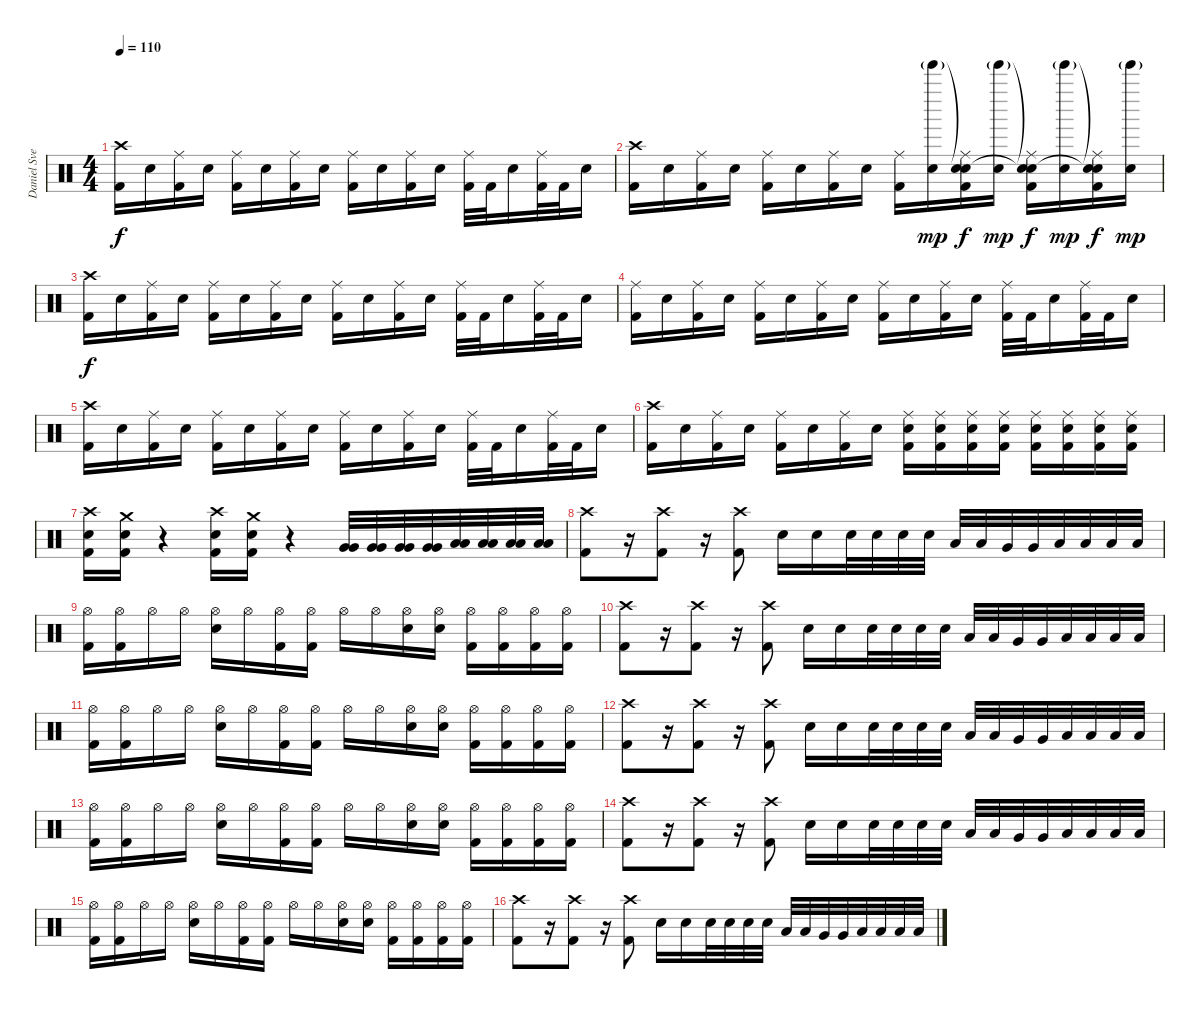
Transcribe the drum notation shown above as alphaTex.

\track ("Daniel Svensson" "Daniel Sve") {instrument percussion}
\staff {score}
\articulation defaults
\ts (4 4)
\tempo 110
\clef neutral
\ks c
("Crash high (hit)" "Kick (hit) 2").16{dy f} "Snare (hit) 2".16 ("Ride (middle)" "Kick (hit) 2").16 "Snare (hit) 2".16 ("Ride (middle)" "Kick (hit) 2").16 "Snare (hit) 2".16 ("Ride (middle)" "Kick (hit) 2").16 "Snare (hit) 2".16 ("Ride (middle)" "Kick (hit) 2").16 "Snare (hit) 2".16 ("Ride (middle)" "Kick (hit) 2").16 "Snare (hit) 2".16 ("Ride (middle)" "Kick (hit) 2").32 "Kick (hit) 2".32 "Snare (hit) 2".16 ("Ride (middle)" "Kick (hit) 2").32 "Kick (hit) 2".32 "Snare (hit) 2".16 |
("Crash high (hit)" "Kick (hit) 2").16 "Snare (hit) 2".16 ("Ride (middle)" "Kick (hit) 2").16 "Snare (hit) 2".16 ("Ride (middle)" "Kick (hit) 2").16 "Snare (hit) 2".16 ("Ride (middle)" "Kick (hit) 2").16 "Snare (hit) 2".16 ("Ride (middle)" "Kick (hit) 2").16 ("Tinkle Bell (hit)"{g} "Snare (hit) 2").16{dy mp} ("Snare (hit)"{t} "Ride (middle)" "Snare (hit)" "Kick (hit) 2").16{dy f} ("Tinkle Bell (hit)"{g} "Snare (hit) 2").16{dy mp} ("Snare (hit)"{t} "Ride (middle)" "Snare (hit)"{t} "Kick (hit) 2").16{dy f} ("Tinkle Bell (hit)"{g} "Snare (hit) 2").16{dy mp} ("Snare (hit)"{t} "Ride (middle)" "Snare (hit)"{t} "Kick (hit) 2").16{dy f} ("Tinkle Bell (hit)"{g} "Snare (hit) 2").16{dy mp} |
("Crash high (hit)" "Kick (hit) 2").16{dy f} "Snare (hit) 2".16 ("Ride (middle)" "Kick (hit) 2").16 "Snare (hit) 2".16 ("Ride (middle)" "Kick (hit) 2").16 "Snare (hit) 2".16 ("Ride (middle)" "Kick (hit) 2").16 "Snare (hit) 2".16 ("Ride (middle)" "Kick (hit) 2").16 "Snare (hit) 2".16 ("Ride (middle)" "Kick (hit) 2").16 "Snare (hit) 2".16 ("Ride (middle)" "Kick (hit) 2").32 "Kick (hit) 2".32 "Snare (hit) 2".16 ("Ride (middle)" "Kick (hit) 2").32 "Kick (hit) 2".32 "Snare (hit) 2".16 |
("Ride (middle)" "Kick (hit) 2").16 "Snare (hit) 2".16 ("Ride (middle)" "Kick (hit) 2").16 "Snare (hit) 2".16 ("Ride (middle)" "Kick (hit) 2").16 "Snare (hit) 2".16 ("Ride (middle)" "Kick (hit) 2").16 "Snare (hit) 2".16 ("Ride (middle)" "Kick (hit) 2").16 "Snare (hit) 2".16 ("Ride (middle)" "Kick (hit) 2").16 "Snare (hit) 2".16 ("Ride (middle)" "Kick (hit) 2").32 "Kick (hit) 2".32 "Snare (hit) 2".16 ("Ride (middle)" "Kick (hit) 2").32 "Kick (hit) 2".32 "Snare (hit) 2".16 |
("Crash high (hit)" "Kick (hit) 2").16 "Snare (hit) 2".16 ("Ride (middle)" "Kick (hit) 2").16 "Snare (hit) 2".16 ("Ride (middle)" "Kick (hit) 2").16 "Snare (hit) 2".16 ("Ride (middle)" "Kick (hit) 2").16 "Snare (hit) 2".16 ("Ride (middle)" "Kick (hit) 2").16 "Snare (hit) 2".16 ("Ride (middle)" "Kick (hit) 2").16 "Snare (hit) 2".16 ("Ride (middle)" "Kick (hit) 2").32 "Kick (hit) 2".32 "Snare (hit) 2".16 ("Ride (middle)" "Kick (hit) 2").32 "Kick (hit) 2".32 "Snare (hit) 2".16 |
("Crash high (hit)" "Kick (hit) 2").16 "Snare (hit) 2".16 ("Ride (middle)" "Kick (hit) 2").16 "Snare (hit) 2".16 ("Ride (middle)" "Kick (hit) 2").16 "Snare (hit) 2".16 ("Ride (middle)" "Kick (hit) 2").16 "Snare (hit) 2".16 ("Ride (middle)" "Snare (hit) 2" "Kick (hit) 2").16 ("Ride (middle)" "Snare (hit) 2" "Kick (hit) 2").16 ("Ride (middle)" "Snare (hit) 2" "Kick (hit) 2").16 ("Ride (middle)" "Snare (hit) 2" "Kick (hit) 2").16 ("Ride (middle)" "Snare (hit) 2" "Kick (hit) 2").16 ("Ride (middle)" "Snare (hit) 2" "Kick (hit) 2").16 ("Ride (middle)" "Snare (hit) 2" "Kick (hit) 2").16 ("Ride (middle)" "Snare (hit) 2" "Kick (hit) 2").16 |
("Crash high (hit)" "Snare (hit) 2" "Kick (hit) 2").16 ("Crash medium (hit)" "Snare (hit) 2" "Kick (hit) 2").16 r.4 ("Crash high (hit)" "Snare (hit) 2" "Kick (hit) 2").16 ("Crash medium (hit)" "Snare (hit) 2" "Kick (hit) 2").16 r.4 ("Very Low Tom (hit)" "Very Low Tom (hit)").32 ("Very Low Tom (hit)" "Very Low Tom (hit)").32 ("Very Low Tom (hit)" "Very Low Tom (hit)").32 ("Very Low Tom (hit)" "Very Low Tom (hit)").32 ("Low Tom (hit)" "Low Tom (hit)").32 ("Low Tom (hit)" "Low Tom (hit)").32 ("Low Floor Tom (hit)" "Low Floor Tom (hit)").32 ("Low Floor Tom (hit)" "Low Floor Tom (hit)").32 |
("Crash high (hit)" "Kick (hit) 2").8 r.16 ("Crash high (hit)" "Kick (hit) 2").8 r.16 ("Crash high (hit)" "Kick (hit) 2").8 "Snare (hit) 2".16 "Snare (hit) 2".16 "Snare (hit) 2".32 "Snare (hit) 2".32 "Snare (hit) 2".32 "Snare (hit) 2".32 "Low Tom (hit)".32 "Low Tom (hit)".32 "Very Low Tom (hit)".32 "Very Low Tom (hit)".32 "Low Floor Tom (hit)".32 "Low Floor Tom (hit)".32 "Low Floor Tom (hit)".32 "Low Floor Tom (hit)".32 |
("Hi-Hat (open)" "Kick (hit) 2").16 ("Hi-Hat (open)" "Kick (hit) 2").16 "Hi-Hat (open)".16 "Hi-Hat (open)".16 ("Hi-Hat (open)" "Snare (hit) 2").16 "Hi-Hat (open)".16 ("Hi-Hat (open)" "Kick (hit) 2").16 ("Hi-Hat (open)" "Kick (hit) 2").16 "Hi-Hat (open)".16 "Hi-Hat (open)".16 ("Hi-Hat (open)" "Snare (hit) 2").16 ("Hi-Hat (open)" "Snare (hit) 2").16 ("Hi-Hat (open)" "Kick (hit) 2").16 ("Hi-Hat (open)" "Kick (hit) 2").16 ("Hi-Hat (open)" "Kick (hit) 2").16 ("Hi-Hat (open)" "Kick (hit) 2").16 |
("Crash high (hit)" "Kick (hit) 2").8 r.16 ("Crash high (hit)" "Kick (hit) 2").8 r.16 ("Crash high (hit)" "Kick (hit) 2").8 "Snare (hit) 2".16 "Snare (hit) 2".16 "Snare (hit) 2".32 "Snare (hit) 2".32 "Snare (hit) 2".32 "Snare (hit) 2".32 "Low Tom (hit)".32 "Low Tom (hit)".32 "Very Low Tom (hit)".32 "Very Low Tom (hit)".32 "Low Floor Tom (hit)".32 "Low Floor Tom (hit)".32 "Low Floor Tom (hit)".32 "Low Floor Tom (hit)".32 |
("Hi-Hat (open)" "Kick (hit) 2").16 ("Hi-Hat (open)" "Kick (hit) 2").16 "Hi-Hat (open)".16 "Hi-Hat (open)".16 ("Hi-Hat (open)" "Snare (hit) 2").16 "Hi-Hat (open)".16 ("Hi-Hat (open)" "Kick (hit) 2").16 ("Hi-Hat (open)" "Kick (hit) 2").16 "Hi-Hat (open)".16 "Hi-Hat (open)".16 ("Hi-Hat (open)" "Snare (hit) 2").16 ("Hi-Hat (open)" "Snare (hit) 2").16 ("Hi-Hat (open)" "Kick (hit) 2").16 ("Hi-Hat (open)" "Kick (hit) 2").16 ("Hi-Hat (open)" "Kick (hit) 2").16 ("Hi-Hat (open)" "Kick (hit) 2").16 |
("Crash high (hit)" "Kick (hit) 2").8 r.16 ("Crash high (hit)" "Kick (hit) 2").8 r.16 ("Crash high (hit)" "Kick (hit) 2").8 "Snare (hit) 2".16 "Snare (hit) 2".16 "Snare (hit) 2".32 "Snare (hit) 2".32 "Snare (hit) 2".32 "Snare (hit) 2".32 "Low Tom (hit)".32 "Low Tom (hit)".32 "Very Low Tom (hit)".32 "Very Low Tom (hit)".32 "Low Floor Tom (hit)".32 "Low Floor Tom (hit)".32 "Low Floor Tom (hit)".32 "Low Floor Tom (hit)".32 |
("Hi-Hat (open)" "Kick (hit) 2").16 ("Hi-Hat (open)" "Kick (hit) 2").16 "Hi-Hat (open)".16 "Hi-Hat (open)".16 ("Hi-Hat (open)" "Snare (hit) 2").16 "Hi-Hat (open)".16 ("Hi-Hat (open)" "Kick (hit) 2").16 ("Hi-Hat (open)" "Kick (hit) 2").16 "Hi-Hat (open)".16 "Hi-Hat (open)".16 ("Hi-Hat (open)" "Snare (hit) 2").16 ("Hi-Hat (open)" "Snare (hit) 2").16 ("Hi-Hat (open)" "Kick (hit) 2").16 ("Hi-Hat (open)" "Kick (hit) 2").16 ("Hi-Hat (open)" "Kick (hit) 2").16 ("Hi-Hat (open)" "Kick (hit) 2").16 |
("Crash high (hit)" "Kick (hit) 2").8 r.16 ("Crash high (hit)" "Kick (hit) 2").8 r.16 ("Crash high (hit)" "Kick (hit) 2").8 "Snare (hit) 2".16 "Snare (hit) 2".16 "Snare (hit) 2".32 "Snare (hit) 2".32 "Snare (hit) 2".32 "Snare (hit) 2".32 "Low Tom (hit)".32 "Low Tom (hit)".32 "Very Low Tom (hit)".32 "Very Low Tom (hit)".32 "Low Floor Tom (hit)".32 "Low Floor Tom (hit)".32 "Low Floor Tom (hit)".32 "Low Floor Tom (hit)".32 |
("Hi-Hat (open)" "Kick (hit) 2").16 ("Hi-Hat (open)" "Kick (hit) 2").16 "Hi-Hat (open)".16 "Hi-Hat (open)".16 ("Hi-Hat (open)" "Snare (hit) 2").16 "Hi-Hat (open)".16 ("Hi-Hat (open)" "Kick (hit) 2").16 ("Hi-Hat (open)" "Kick (hit) 2").16 "Hi-Hat (open)".16 "Hi-Hat (open)".16 ("Hi-Hat (open)" "Snare (hit) 2").16 ("Hi-Hat (open)" "Snare (hit) 2").16 ("Hi-Hat (open)" "Kick (hit) 2").16 ("Hi-Hat (open)" "Kick (hit) 2").16 ("Hi-Hat (open)" "Kick (hit) 2").16 ("Hi-Hat (open)" "Kick (hit) 2").16 |
("Crash high (hit)" "Kick (hit) 2").8 r.16 ("Crash high (hit)" "Kick (hit) 2").8 r.16 ("Crash high (hit)" "Kick (hit) 2").8 "Snare (hit) 2".16 "Snare (hit) 2".16 "Snare (hit) 2".32 "Snare (hit) 2".32 "Snare (hit) 2".32 "Snare (hit) 2".32 "Low Tom (hit)".32 "Low Tom (hit)".32 "Very Low Tom (hit)".32 "Very Low Tom (hit)".32 "Low Floor Tom (hit)".32 "Low Floor Tom (hit)".32 "Low Floor Tom (hit)".32 "Low Floor Tom (hit)".32
